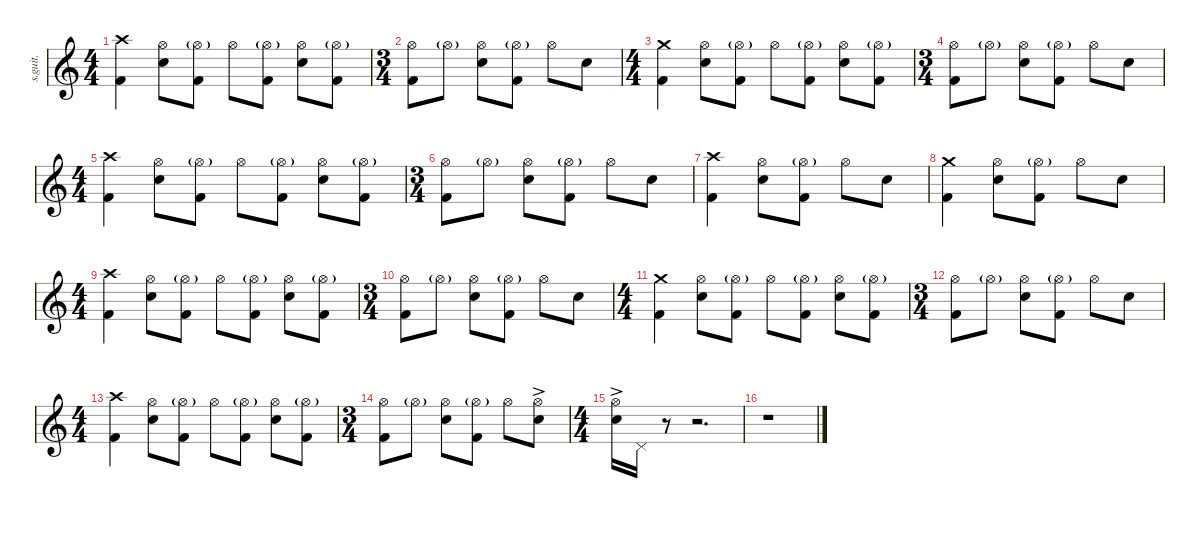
\defaultSystemsLayout 4
\hideDynamics
\bracketExtendMode nobrackets
\track ("Mike Wengren" "s.guit.") {instrument percussion}
\staff {score}
\articulation defaults
\ts (4 4)
\beaming (8 2 2 2 2)
\tempo (90 hide)
\clef g2
\ks c
("Crash high (hit)" "Kick (hit) 2").4{lyrics (0 "") lyrics (1 "") lyrics (2 "") lyrics (3 "") lyrics (4 "") dy ff} ("Hi-Hat (open)" "Snare (hit) 2").8{lyrics (0 "") lyrics (1 "") lyrics (2 "") lyrics (3 "") lyrics (4 "")} ("Kick (hit) 2" "Hi-Hat (open)"{g}).8{lyrics (0 "") lyrics (1 "") lyrics (2 "") lyrics (3 "") lyrics (4 "")} "Hi-Hat (open)".8{lyrics (0 "") lyrics (1 "") lyrics (2 "") lyrics (3 "") lyrics (4 "")} ("Kick (hit) 2" "Hi-Hat (open)"{g}).8{lyrics (0 "") lyrics (1 "") lyrics (2 "") lyrics (3 "") lyrics (4 "")} ("Hi-Hat (open)" "Snare (hit) 2").8{lyrics (0 "") lyrics (1 "") lyrics (2 "") lyrics (3 "") lyrics (4 "")} ("Kick (hit) 2" "Hi-Hat (open)"{g}).8{lyrics (0 "") lyrics (1 "") lyrics (2 "") lyrics (3 "") lyrics (4 "")} |
\ts (3 4)
\beaming (8 2 2 2 2)
("Hi-Hat (open)" "Kick (hit) 2").8{lyrics (0 "") lyrics (1 "") lyrics (2 "") lyrics (3 "") lyrics (4 "")} "Hi-Hat (open)"{g}.8{lyrics (0 "") lyrics (1 "") lyrics (2 "") lyrics (3 "") lyrics (4 "")} ("Hi-Hat (open)" "Snare (hit) 2").8{lyrics (0 "") lyrics (1 "") lyrics (2 "") lyrics (3 "") lyrics (4 "")} ("Kick (hit) 2" "Hi-Hat (open)"{g}).8{lyrics (0 "") lyrics (1 "") lyrics (2 "") lyrics (3 "") lyrics (4 "")} "Hi-Hat (open)".8{lyrics (0 "") lyrics (1 "") lyrics (2 "") lyrics (3 "") lyrics (4 "")} "Snare (hit) 2".8{lyrics (0 "") lyrics (1 "") lyrics (2 "") lyrics (3 "") lyrics (4 "")} |
\ts (4 4)
\beaming (8 2 2 2 2)
("Kick (hit) 2" "Crash medium (hit)").4{lyrics (0 "") lyrics (1 "") lyrics (2 "") lyrics (3 "") lyrics (4 "")} ("Hi-Hat (open)" "Snare (hit) 2").8{lyrics (0 "") lyrics (1 "") lyrics (2 "") lyrics (3 "") lyrics (4 "")} ("Kick (hit) 2" "Hi-Hat (open)"{g}).8{lyrics (0 "") lyrics (1 "") lyrics (2 "") lyrics (3 "") lyrics (4 "")} "Hi-Hat (open)".8{lyrics (0 "") lyrics (1 "") lyrics (2 "") lyrics (3 "") lyrics (4 "")} ("Kick (hit) 2" "Hi-Hat (open)"{g}).8{lyrics (0 "") lyrics (1 "") lyrics (2 "") lyrics (3 "") lyrics (4 "")} ("Hi-Hat (open)" "Snare (hit) 2").8{lyrics (0 "") lyrics (1 "") lyrics (2 "") lyrics (3 "") lyrics (4 "")} ("Kick (hit) 2" "Hi-Hat (open)"{g}).8{lyrics (0 "") lyrics (1 "") lyrics (2 "") lyrics (3 "") lyrics (4 "")} |
\ts (3 4)
\beaming (8 2 2 2 2)
("Hi-Hat (open)" "Kick (hit) 2").8{lyrics (0 "") lyrics (1 "") lyrics (2 "") lyrics (3 "") lyrics (4 "")} "Hi-Hat (open)"{g}.8{lyrics (0 "") lyrics (1 "") lyrics (2 "") lyrics (3 "") lyrics (4 "")} ("Hi-Hat (open)" "Snare (hit) 2").8{lyrics (0 "") lyrics (1 "") lyrics (2 "") lyrics (3 "") lyrics (4 "")} ("Kick (hit) 2" "Hi-Hat (open)"{g}).8{lyrics (0 "") lyrics (1 "") lyrics (2 "") lyrics (3 "") lyrics (4 "")} "Hi-Hat (open)".8{lyrics (0 "") lyrics (1 "") lyrics (2 "") lyrics (3 "") lyrics (4 "")} "Snare (hit) 2".8{lyrics (0 "") lyrics (1 "") lyrics (2 "") lyrics (3 "") lyrics (4 "")} |
\ts (4 4)
\beaming (8 2 2 2 2)
("Crash high (hit)" "Kick (hit) 2").4{lyrics (0 "") lyrics (1 "") lyrics (2 "") lyrics (3 "") lyrics (4 "")} ("Hi-Hat (open)" "Snare (hit) 2").8{lyrics (0 "") lyrics (1 "") lyrics (2 "") lyrics (3 "") lyrics (4 "")} ("Kick (hit) 2" "Hi-Hat (open)"{g}).8{lyrics (0 "") lyrics (1 "") lyrics (2 "") lyrics (3 "") lyrics (4 "")} "Hi-Hat (open)".8{lyrics (0 "") lyrics (1 "") lyrics (2 "") lyrics (3 "") lyrics (4 "")} ("Kick (hit) 2" "Hi-Hat (open)"{g}).8{lyrics (0 "") lyrics (1 "") lyrics (2 "") lyrics (3 "") lyrics (4 "")} ("Hi-Hat (open)" "Snare (hit) 2").8{lyrics (0 "") lyrics (1 "") lyrics (2 "") lyrics (3 "") lyrics (4 "")} ("Kick (hit) 2" "Hi-Hat (open)"{g}).8{lyrics (0 "") lyrics (1 "") lyrics (2 "") lyrics (3 "") lyrics (4 "")} |
\ts (3 4)
\beaming (8 2 2 2 2)
("Hi-Hat (open)" "Kick (hit) 2").8{lyrics (0 "") lyrics (1 "") lyrics (2 "") lyrics (3 "") lyrics (4 "")} "Hi-Hat (open)"{g}.8{lyrics (0 "") lyrics (1 "") lyrics (2 "") lyrics (3 "") lyrics (4 "")} ("Hi-Hat (open)" "Snare (hit) 2").8{lyrics (0 "") lyrics (1 "") lyrics (2 "") lyrics (3 "") lyrics (4 "")} ("Kick (hit) 2" "Hi-Hat (open)"{g}).8{lyrics (0 "") lyrics (1 "") lyrics (2 "") lyrics (3 "") lyrics (4 "")} "Hi-Hat (open)".8{lyrics (0 "") lyrics (1 "") lyrics (2 "") lyrics (3 "") lyrics (4 "")} "Snare (hit) 2".8{lyrics (0 "") lyrics (1 "") lyrics (2 "") lyrics (3 "") lyrics (4 "")} |
("Crash high (hit)" "Kick (hit) 2").4{lyrics (0 "") lyrics (1 "") lyrics (2 "") lyrics (3 "") lyrics (4 "")} ("Hi-Hat (open)" "Snare (hit) 2").8{lyrics (0 "") lyrics (1 "") lyrics (2 "") lyrics (3 "") lyrics (4 "")} ("Kick (hit) 2" "Hi-Hat (open)"{g}).8{lyrics (0 "") lyrics (1 "") lyrics (2 "") lyrics (3 "") lyrics (4 "")} "Hi-Hat (open)".8{lyrics (0 "") lyrics (1 "") lyrics (2 "") lyrics (3 "") lyrics (4 "")} "Snare (hit) 2".8{lyrics (0 "") lyrics (1 "") lyrics (2 "") lyrics (3 "") lyrics (4 "")} |
("Kick (hit) 2" "Crash medium (hit)").4{lyrics (0 "") lyrics (1 "") lyrics (2 "") lyrics (3 "") lyrics (4 "")} ("Hi-Hat (open)" "Snare (hit) 2").8{lyrics (0 "") lyrics (1 "") lyrics (2 "") lyrics (3 "") lyrics (4 "")} ("Kick (hit) 2" "Hi-Hat (open)"{g}).8{lyrics (0 "") lyrics (1 "") lyrics (2 "") lyrics (3 "") lyrics (4 "")} "Hi-Hat (open)".8{lyrics (0 "") lyrics (1 "") lyrics (2 "") lyrics (3 "") lyrics (4 "")} "Snare (hit) 2".8{lyrics (0 "") lyrics (1 "") lyrics (2 "") lyrics (3 "") lyrics (4 "")} |
\ts (4 4)
\beaming (8 2 2 2 2)
("Crash high (hit)" "Kick (hit) 2").4{lyrics (0 "") lyrics (1 "") lyrics (2 "") lyrics (3 "") lyrics (4 "")} ("Hi-Hat (open)" "Snare (hit) 2").8{lyrics (0 "") lyrics (1 "") lyrics (2 "") lyrics (3 "") lyrics (4 "")} ("Kick (hit) 2" "Hi-Hat (open)"{g}).8{lyrics (0 "") lyrics (1 "") lyrics (2 "") lyrics (3 "") lyrics (4 "")} "Hi-Hat (open)".8{lyrics (0 "") lyrics (1 "") lyrics (2 "") lyrics (3 "") lyrics (4 "")} ("Kick (hit) 2" "Hi-Hat (open)"{g}).8{lyrics (0 "") lyrics (1 "") lyrics (2 "") lyrics (3 "") lyrics (4 "")} ("Hi-Hat (open)" "Snare (hit) 2").8{lyrics (0 "") lyrics (1 "") lyrics (2 "") lyrics (3 "") lyrics (4 "")} ("Kick (hit) 2" "Hi-Hat (open)"{g}).8{lyrics (0 "") lyrics (1 "") lyrics (2 "") lyrics (3 "") lyrics (4 "")} |
\ts (3 4)
\beaming (8 2 2 2 2)
("Hi-Hat (open)" "Kick (hit) 2").8{lyrics (0 "") lyrics (1 "") lyrics (2 "") lyrics (3 "") lyrics (4 "")} "Hi-Hat (open)"{g}.8{lyrics (0 "") lyrics (1 "") lyrics (2 "") lyrics (3 "") lyrics (4 "")} ("Hi-Hat (open)" "Snare (hit) 2").8{lyrics (0 "") lyrics (1 "") lyrics (2 "") lyrics (3 "") lyrics (4 "")} ("Kick (hit) 2" "Hi-Hat (open)"{g}).8{lyrics (0 "") lyrics (1 "") lyrics (2 "") lyrics (3 "") lyrics (4 "")} "Hi-Hat (open)".8{lyrics (0 "") lyrics (1 "") lyrics (2 "") lyrics (3 "") lyrics (4 "")} "Snare (hit) 2".8{lyrics (0 "") lyrics (1 "") lyrics (2 "") lyrics (3 "") lyrics (4 "")} |
\ts (4 4)
\beaming (8 2 2 2 2)
("Kick (hit) 2" "Crash medium (hit)").4{lyrics (0 "") lyrics (1 "") lyrics (2 "") lyrics (3 "") lyrics (4 "")} ("Hi-Hat (open)" "Snare (hit) 2").8{lyrics (0 "") lyrics (1 "") lyrics (2 "") lyrics (3 "") lyrics (4 "")} ("Kick (hit) 2" "Hi-Hat (open)"{g}).8{lyrics (0 "") lyrics (1 "") lyrics (2 "") lyrics (3 "") lyrics (4 "")} "Hi-Hat (open)".8{lyrics (0 "") lyrics (1 "") lyrics (2 "") lyrics (3 "") lyrics (4 "")} ("Kick (hit) 2" "Hi-Hat (open)"{g}).8{lyrics (0 "") lyrics (1 "") lyrics (2 "") lyrics (3 "") lyrics (4 "")} ("Hi-Hat (open)" "Snare (hit) 2").8{lyrics (0 "") lyrics (1 "") lyrics (2 "") lyrics (3 "") lyrics (4 "")} ("Kick (hit) 2" "Hi-Hat (open)"{g}).8{lyrics (0 "") lyrics (1 "") lyrics (2 "") lyrics (3 "") lyrics (4 "")} |
\ts (3 4)
\beaming (8 2 2 2 2)
("Hi-Hat (open)" "Kick (hit) 2").8{lyrics (0 "") lyrics (1 "") lyrics (2 "") lyrics (3 "") lyrics (4 "")} "Hi-Hat (open)"{g}.8{lyrics (0 "") lyrics (1 "") lyrics (2 "") lyrics (3 "") lyrics (4 "")} ("Hi-Hat (open)" "Snare (hit) 2").8{lyrics (0 "") lyrics (1 "") lyrics (2 "") lyrics (3 "") lyrics (4 "")} ("Kick (hit) 2" "Hi-Hat (open)"{g}).8{lyrics (0 "") lyrics (1 "") lyrics (2 "") lyrics (3 "") lyrics (4 "")} "Hi-Hat (open)".8{lyrics (0 "") lyrics (1 "") lyrics (2 "") lyrics (3 "") lyrics (4 "")} "Snare (hit) 2".8{lyrics (0 "") lyrics (1 "") lyrics (2 "") lyrics (3 "") lyrics (4 "")} |
\ts (4 4)
\beaming (8 2 2 2 2)
("Crash high (hit)" "Kick (hit) 2").4{lyrics (0 "") lyrics (1 "") lyrics (2 "") lyrics (3 "") lyrics (4 "")} ("Hi-Hat (open)" "Snare (hit) 2").8{lyrics (0 "") lyrics (1 "") lyrics (2 "") lyrics (3 "") lyrics (4 "")} ("Kick (hit) 2" "Hi-Hat (open)"{g}).8{lyrics (0 "") lyrics (1 "") lyrics (2 "") lyrics (3 "") lyrics (4 "")} "Hi-Hat (open)".8{lyrics (0 "") lyrics (1 "") lyrics (2 "") lyrics (3 "") lyrics (4 "")} ("Kick (hit) 2" "Hi-Hat (open)"{g}).8{lyrics (0 "") lyrics (1 "") lyrics (2 "") lyrics (3 "") lyrics (4 "")} ("Hi-Hat (open)" "Snare (hit) 2").8{lyrics (0 "") lyrics (1 "") lyrics (2 "") lyrics (3 "") lyrics (4 "")} ("Kick (hit) 2" "Hi-Hat (open)"{g}).8{lyrics (0 "") lyrics (1 "") lyrics (2 "") lyrics (3 "") lyrics (4 "")} |
\ts (3 4)
\beaming (8 2 2 2 2)
("Hi-Hat (open)" "Kick (hit) 2").8{lyrics (0 "") lyrics (1 "") lyrics (2 "") lyrics (3 "") lyrics (4 "")} "Hi-Hat (open)"{g}.8{lyrics (0 "") lyrics (1 "") lyrics (2 "") lyrics (3 "") lyrics (4 "")} ("Hi-Hat (open)" "Snare (hit) 2").8{lyrics (0 "") lyrics (1 "") lyrics (2 "") lyrics (3 "") lyrics (4 "")} ("Kick (hit) 2" "Hi-Hat (open)"{g}).8{lyrics (0 "") lyrics (1 "") lyrics (2 "") lyrics (3 "") lyrics (4 "")} "Hi-Hat (open)".8{lyrics (0 "") lyrics (1 "") lyrics (2 "") lyrics (3 "") lyrics (4 "")} ("Snare (hit) 2"{ac} "Hi-Hat (open)"{ac}).8{lyrics (0 "") lyrics (1 "") lyrics (2 "") lyrics (3 "") lyrics (4 "")} |
\ts (4 4)
\beaming (8 2 2 2 2)
("Snare (hit) 2"{ac} "Hi-Hat (open)"{ac}).16{lyrics (0 "") lyrics (1 "") lyrics (2 "") lyrics (3 "") lyrics (4 "")} "Pedal Hi-Hat (hit)".16{lyrics (0 "") lyrics (1 "") lyrics (2 "") lyrics (3 "") lyrics (4 "")} r.8 r.2{d} |
r.1
